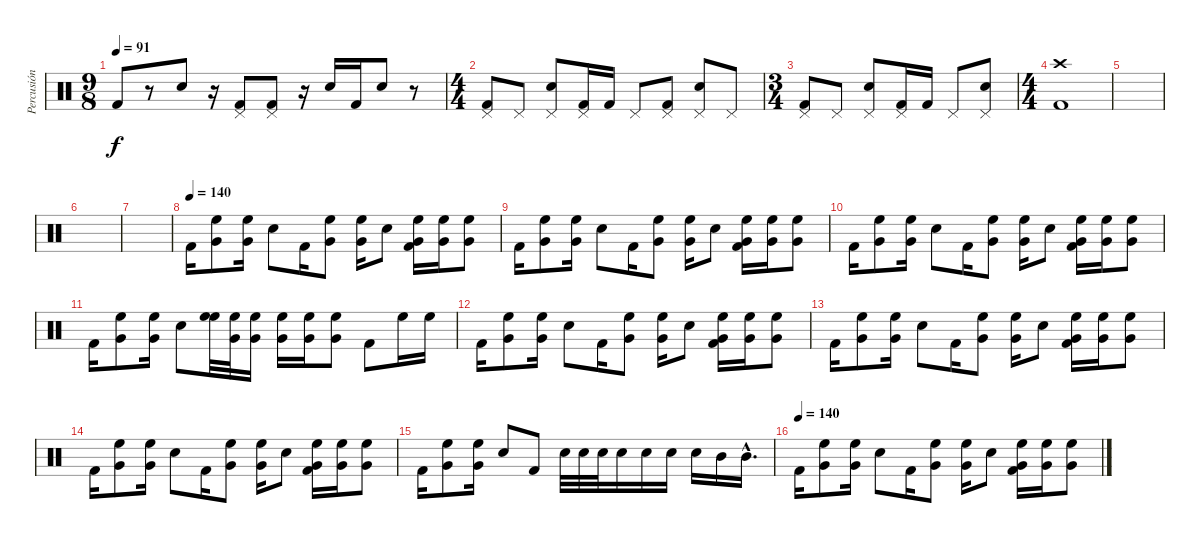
\track ("Percusión" "Percusión") {instrument percussion}
\staff {score}
\articulation defaults
\ts (9 8)
\tempo 91
\clef neutral
\ks c "Kick (hit) 2".8{dy f}
r.8 "Electric Snare (hit)".8 r.16 ("Pedal Hi-Hat (hit)" "Kick (hit) 2").8 ("Pedal Hi-Hat (hit)" "Kick (hit) 2").8 r.16 "Electric Snare (hit)".16 "Kick (hit) 2".16 "Electric Snare (hit)".8 r.8 |
\ts (4 4)
("Pedal Hi-Hat (hit)" "Kick (hit) 2").8 "Pedal Hi-Hat (hit)".8 ("Pedal Hi-Hat (hit)" "Electric Snare (hit)").8 ("Pedal Hi-Hat (hit)" "Kick (hit) 2").16 "Kick (hit) 2".16 "Pedal Hi-Hat (hit)".8 ("Pedal Hi-Hat (hit)" "Kick (hit) 2").8 ("Pedal Hi-Hat (hit)" "Electric Snare (hit)").8 "Pedal Hi-Hat (hit)".8 |
\ts (3 4)
("Pedal Hi-Hat (hit)" "Kick (hit) 2").8 "Pedal Hi-Hat (hit)".8 ("Pedal Hi-Hat (hit)" "Electric Snare (hit)").8 ("Pedal Hi-Hat (hit)" "Kick (hit) 2").16 "Kick (hit) 2".16 "Pedal Hi-Hat (hit)".8 ("Pedal Hi-Hat (hit)" "Electric Snare (hit)").8 |
\ts (4 4)
("Crash high (hit)" "Kick (hit) 2").1 |
|
|
|
\tempo (140)
"Kick (hit) 2".16 ("Very Low Tom (hit)" "High Floor Tom (hit)").8 ("Very Low Tom (hit)" "High Floor Tom (hit)").16 "Electric Snare (hit)".8 "Kick (hit) 2".16 ("Very Low Tom (hit)" "High Floor Tom (hit)").8 ("Very Low Tom (hit)" "High Floor Tom (hit)").16 "Electric Snare (hit)".8 ("Very Low Tom (hit)" "High Floor Tom (hit)" "Kick (hit) 2").16 ("Very Low Tom (hit)" "High Floor Tom (hit)").16 ("Very Low Tom (hit)" "High Floor Tom (hit)").8 |
"Kick (hit) 2".16 ("Very Low Tom (hit)" "High Floor Tom (hit)").8 ("Very Low Tom (hit)" "High Floor Tom (hit)").16 "Electric Snare (hit)".8 "Kick (hit) 2".16 ("Very Low Tom (hit)" "High Floor Tom (hit)").8 ("Very Low Tom (hit)" "High Floor Tom (hit)").16 "Electric Snare (hit)".8 ("Very Low Tom (hit)" "High Floor Tom (hit)" "Kick (hit) 2").16 ("Very Low Tom (hit)" "High Floor Tom (hit)").16 ("Very Low Tom (hit)" "High Floor Tom (hit)").8 |
"Kick (hit) 2".16 ("Very Low Tom (hit)" "High Floor Tom (hit)").8 ("Very Low Tom (hit)" "High Floor Tom (hit)").16 "Electric Snare (hit)".8 "Kick (hit) 2".16 ("Very Low Tom (hit)" "High Floor Tom (hit)").8 ("Very Low Tom (hit)" "High Floor Tom (hit)").16 "Electric Snare (hit)".8 ("Very Low Tom (hit)" "High Floor Tom (hit)" "Kick (hit) 2").16 ("Very Low Tom (hit)" "High Floor Tom (hit)").16 ("Very Low Tom (hit)" "High Floor Tom (hit)").8 |
"Kick (hit) 2".16 ("Very Low Tom (hit)" "High Floor Tom (hit)").8 ("Very Low Tom (hit)" "High Floor Tom (hit)").16 "Electric Snare (hit)".8 ("High Floor Tom (hit)" "High Floor Tom (hit)").32 ("Very Low Tom (hit)" "High Floor Tom (hit)").32 ("Very Low Tom (hit)" "High Floor Tom (hit)").16 ("Very Low Tom (hit)" "High Floor Tom (hit)").16 ("Very Low Tom (hit)" "High Floor Tom (hit)").16 ("Very Low Tom (hit)" "High Floor Tom (hit)").8 "Kick (hit) 2".8 "High Floor Tom (hit)".16 "High Floor Tom (hit)".16 |
"Kick (hit) 2".16 ("Very Low Tom (hit)" "High Floor Tom (hit)").8 ("Very Low Tom (hit)" "High Floor Tom (hit)").16 "Electric Snare (hit)".8 "Kick (hit) 2".16 ("Very Low Tom (hit)" "High Floor Tom (hit)").8 ("Very Low Tom (hit)" "High Floor Tom (hit)").16 "Electric Snare (hit)".8 ("Very Low Tom (hit)" "High Floor Tom (hit)" "Kick (hit) 2").16 ("Very Low Tom (hit)" "High Floor Tom (hit)").16 ("Very Low Tom (hit)" "High Floor Tom (hit)").8 |
"Kick (hit) 2".16 ("Very Low Tom (hit)" "High Floor Tom (hit)").8 ("Very Low Tom (hit)" "High Floor Tom (hit)").16 "Electric Snare (hit)".8 "Kick (hit) 2".16 ("Very Low Tom (hit)" "High Floor Tom (hit)").8 ("Very Low Tom (hit)" "High Floor Tom (hit)").16 "Electric Snare (hit)".8 ("Very Low Tom (hit)" "High Floor Tom (hit)" "Kick (hit) 2").16 ("Very Low Tom (hit)" "High Floor Tom (hit)").16 ("Very Low Tom (hit)" "High Floor Tom (hit)").8 |
"Kick (hit) 2".16 ("Very Low Tom (hit)" "High Floor Tom (hit)").8 ("Very Low Tom (hit)" "High Floor Tom (hit)").16 "Electric Snare (hit)".8 "Kick (hit) 2".16 ("Very Low Tom (hit)" "High Floor Tom (hit)").8 ("Very Low Tom (hit)" "High Floor Tom (hit)").16 "Electric Snare (hit)".8 ("Very Low Tom (hit)" "High Floor Tom (hit)" "Kick (hit) 2").16 ("Very Low Tom (hit)" "High Floor Tom (hit)").16 ("Very Low Tom (hit)" "High Floor Tom (hit)").8 |
"Kick (hit) 2".16 ("Very Low Tom (hit)" "High Floor Tom (hit)").8 ("Very Low Tom (hit)" "High Floor Tom (hit)").16 "Electric Snare (hit)".8 "Kick (hit) 2".8 "Electric Snare (hit)".32 "Electric Snare (hit)".32 "Electric Snare (hit)".32 "Electric Snare (hit)".16 "Electric Snare (hit)".16 "Electric Snare (hit)".16 "Electric Snare (hit)".16 "Mid Tom (hit)".16 "Mid Tom (hit)"{hac}.16{d} |
\tempo (140)
"Kick (hit) 2".16 ("Very Low Tom (hit)" "High Floor Tom (hit)").8 ("Very Low Tom (hit)" "High Floor Tom (hit)").16 "Electric Snare (hit)".8 "Kick (hit) 2".16 ("Very Low Tom (hit)" "High Floor Tom (hit)").8 ("Very Low Tom (hit)" "High Floor Tom (hit)").16 "Electric Snare (hit)".8 ("Very Low Tom (hit)" "High Floor Tom (hit)" "Kick (hit) 2").16 ("Very Low Tom (hit)" "High Floor Tom (hit)").16 ("Very Low Tom (hit)" "High Floor Tom (hit)").8
